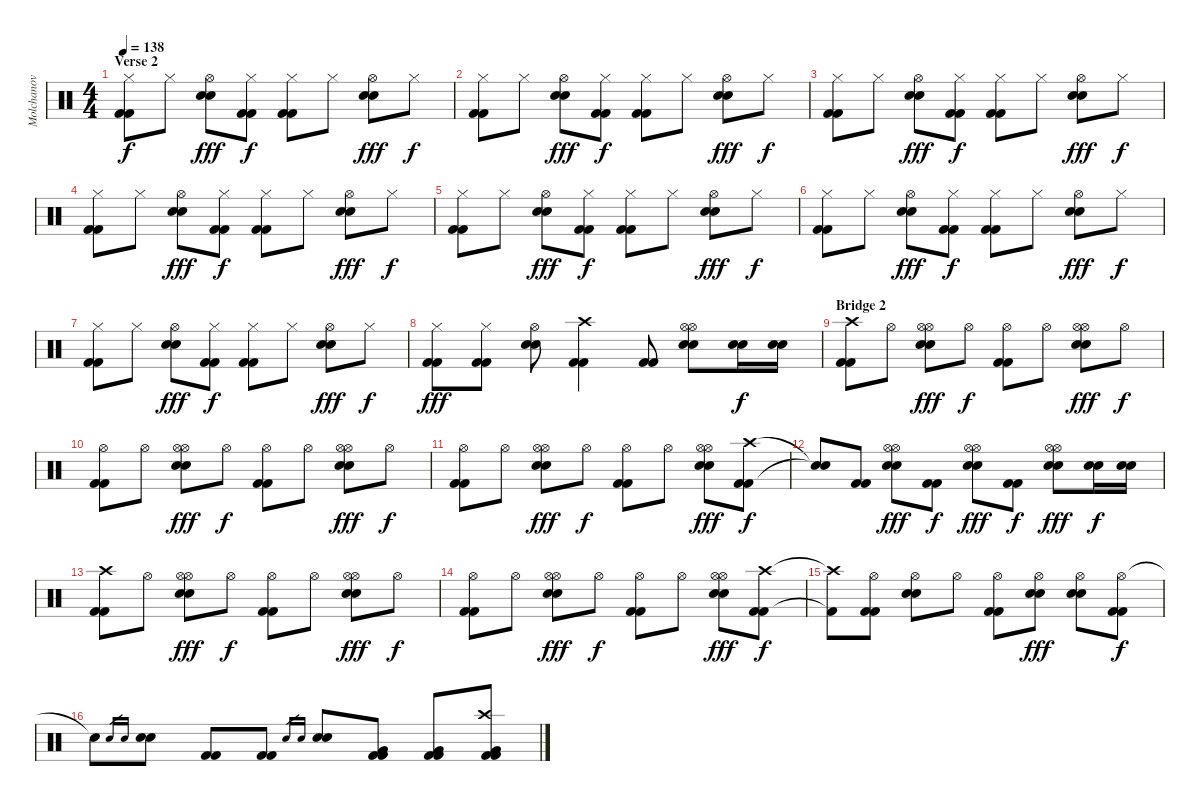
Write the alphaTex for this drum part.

\track ("Molchanov" "Molchanov") {instrument percussion}
\staff {score}
\articulation defaults
\ts (4 4)
\section ("" "Verse 2")
\tempo 138
\clef neutral
\ks c
("Hi-Hat (closed)" "Kick (hit) 2" "Kick (hit) 2").8{dy f} "Hi-Hat (closed)".8 ("Hi-Hat (open)" "Electric Snare (hit)" "Electric Snare (hit)").8{dy fff} ("Hi-Hat (closed)" "Kick (hit) 2" "Kick (hit) 2").8{dy f} ("Hi-Hat (closed)" "Kick (hit) 2" "Kick (hit) 2").8 "Hi-Hat (closed)".8 ("Hi-Hat (open)" "Electric Snare (hit)" "Electric Snare (hit)").8{dy fff} "Hi-Hat (closed)".8{dy f} |
("Hi-Hat (closed)" "Kick (hit) 2" "Kick (hit) 2").8 "Hi-Hat (closed)".8 ("Hi-Hat (open)" "Electric Snare (hit)" "Electric Snare (hit)").8{dy fff} ("Hi-Hat (closed)" "Kick (hit) 2" "Kick (hit) 2").8{dy f} ("Hi-Hat (closed)" "Kick (hit) 2" "Kick (hit) 2").8 "Hi-Hat (closed)".8 ("Hi-Hat (open)" "Electric Snare (hit)" "Electric Snare (hit)").8{dy fff} "Hi-Hat (closed)".8{dy f} |
("Hi-Hat (closed)" "Kick (hit) 2" "Kick (hit) 2").8 "Hi-Hat (closed)".8 ("Hi-Hat (open)" "Electric Snare (hit)" "Electric Snare (hit)").8{dy fff} ("Hi-Hat (closed)" "Kick (hit) 2" "Kick (hit) 2").8{dy f} ("Hi-Hat (closed)" "Kick (hit) 2" "Kick (hit) 2").8 "Hi-Hat (closed)".8 ("Hi-Hat (open)" "Electric Snare (hit)" "Electric Snare (hit)").8{dy fff} "Hi-Hat (closed)".8{dy f} |
("Hi-Hat (closed)" "Kick (hit) 2" "Kick (hit) 2").8 "Hi-Hat (closed)".8 ("Hi-Hat (open)" "Electric Snare (hit)" "Electric Snare (hit)").8{dy fff} ("Hi-Hat (closed)" "Kick (hit) 2" "Kick (hit) 2").8{dy f} ("Hi-Hat (closed)" "Kick (hit) 2" "Kick (hit) 2").8 "Hi-Hat (closed)".8 ("Hi-Hat (open)" "Electric Snare (hit)" "Electric Snare (hit)").8{dy fff} "Hi-Hat (closed)".8{dy f} |
("Hi-Hat (closed)" "Kick (hit) 2" "Kick (hit) 2").8 "Hi-Hat (closed)".8 ("Hi-Hat (open)" "Electric Snare (hit)" "Electric Snare (hit)").8{dy fff} ("Hi-Hat (closed)" "Kick (hit) 2" "Kick (hit) 2").8{dy f} ("Hi-Hat (closed)" "Kick (hit) 2" "Kick (hit) 2").8 "Hi-Hat (closed)".8 ("Hi-Hat (open)" "Electric Snare (hit)" "Electric Snare (hit)").8{dy fff} "Hi-Hat (closed)".8{dy f} |
("Hi-Hat (closed)" "Kick (hit) 2" "Kick (hit) 2").8 "Hi-Hat (closed)".8 ("Hi-Hat (open)" "Electric Snare (hit)" "Electric Snare (hit)").8{dy fff} ("Hi-Hat (closed)" "Kick (hit) 2" "Kick (hit) 2").8{dy f} ("Hi-Hat (closed)" "Kick (hit) 2" "Kick (hit) 2").8 "Hi-Hat (closed)".8 ("Hi-Hat (open)" "Electric Snare (hit)" "Electric Snare (hit)").8{dy fff} "Hi-Hat (closed)".8{dy f} |
("Hi-Hat (closed)" "Kick (hit) 2" "Kick (hit) 2").8 "Hi-Hat (closed)".8 ("Hi-Hat (open)" "Electric Snare (hit)" "Electric Snare (hit)").8{dy fff} ("Hi-Hat (closed)" "Kick (hit) 2" "Kick (hit) 2").8{dy f} ("Hi-Hat (closed)" "Kick (hit) 2" "Kick (hit) 2").8 "Hi-Hat (closed)".8 ("Hi-Hat (open)" "Electric Snare (hit)" "Electric Snare (hit)").8{dy fff} "Hi-Hat (closed)".8{dy f} |
("Hi-Hat (closed)" "Kick (hit) 2" "Kick (hit) 2").8{dy fff} ("Hi-Hat (closed)" "Kick (hit) 2" "Kick (hit) 2").8 ("Hi-Hat (open)" "Electric Snare (hit)" "Electric Snare (hit)").8 ("Crash high (hit)" "Kick (hit) 2" "Kick (hit) 2").4 ("Kick (hit) 2" "Kick (hit) 2").8 ("Hi-Hat (open)" "Hi-Hat (open)" "Electric Snare (hit)" "Electric Snare (hit)").8 ("Electric Snare (hit)" "Electric Snare (hit)").16{dy f} ("Electric Snare (hit)" "Electric Snare (hit)").16 |
\section ("" "Bridge 2")
("Crash high (hit)" "Kick (hit) 2" "Kick (hit) 2").8 "Hi-Hat (open)".8 ("Hi-Hat (open)" "Hi-Hat (open)" "Electric Snare (hit)" "Electric Snare (hit)").8{dy fff} "Hi-Hat (open)".8{dy f} ("Hi-Hat (open)" "Kick (hit) 2" "Kick (hit) 2").8 "Hi-Hat (open)".8 ("Hi-Hat (open)" "Hi-Hat (open)" "Electric Snare (hit)" "Electric Snare (hit)").8{dy fff} "Hi-Hat (open)".8{dy f} |
("Hi-Hat (open)" "Kick (hit) 2" "Kick (hit) 2").8 "Hi-Hat (open)".8 ("Hi-Hat (open)" "Hi-Hat (open)" "Electric Snare (hit)" "Electric Snare (hit)").8{dy fff} "Hi-Hat (open)".8{dy f} ("Hi-Hat (open)" "Kick (hit) 2" "Kick (hit) 2").8 "Hi-Hat (open)".8 ("Hi-Hat (open)" "Hi-Hat (open)" "Electric Snare (hit)" "Electric Snare (hit)").8{dy fff} "Hi-Hat (open)".8{dy f} |
("Hi-Hat (open)" "Kick (hit) 2" "Kick (hit) 2").8 "Hi-Hat (open)".8 ("Hi-Hat (open)" "Hi-Hat (open)" "Electric Snare (hit)" "Electric Snare (hit)").8{dy fff} "Hi-Hat (open)".8{dy f} ("Hi-Hat (open)" "Kick (hit) 2" "Kick (hit) 2").8 "Hi-Hat (open)".8 ("Hi-Hat (open)" "Hi-Hat (open)" "Electric Snare (hit)" "Electric Snare (hit)").8{dy fff} ("Crash high (hit)" "Kick (hit) 2" "Kick (hit) 2").8{dy f} |
("Snare (hit)"{t} "Snare (hit)"{t}).8 ("Kick (hit) 2" "Kick (hit) 2").8 ("Hi-Hat (open)" "Hi-Hat (open)" "Electric Snare (hit)" "Electric Snare (hit)").8{dy fff} ("Kick (hit) 2" "Kick (hit) 2").8{dy f} ("Hi-Hat (open)" "Hi-Hat (open)" "Electric Snare (hit)" "Electric Snare (hit)").8{dy fff} ("Kick (hit) 2" "Kick (hit) 2").8{dy f} ("Hi-Hat (open)" "Hi-Hat (open)" "Electric Snare (hit)" "Electric Snare (hit)").8{dy fff} ("Electric Snare (hit)" "Electric Snare (hit)").16{dy f} ("Electric Snare (hit)" "Electric Snare (hit)").16 |
("Crash high (hit)" "Kick (hit) 2" "Kick (hit) 2").8 "Hi-Hat (open)".8 ("Hi-Hat (open)" "Hi-Hat (open)" "Electric Snare (hit)" "Electric Snare (hit)").8{dy fff} "Hi-Hat (open)".8{dy f} ("Hi-Hat (open)" "Kick (hit) 2" "Kick (hit) 2").8 "Hi-Hat (open)".8 ("Hi-Hat (open)" "Hi-Hat (open)" "Electric Snare (hit)" "Electric Snare (hit)").8{dy fff} "Hi-Hat (open)".8{dy f} |
("Hi-Hat (open)" "Kick (hit) 2" "Kick (hit) 2").8 "Hi-Hat (open)".8 ("Hi-Hat (open)" "Hi-Hat (open)" "Electric Snare (hit)" "Electric Snare (hit)").8{dy fff} "Hi-Hat (open)".8{dy f} ("Hi-Hat (open)" "Kick (hit) 2" "Kick (hit) 2").8 "Hi-Hat (open)".8 ("Hi-Hat (open)" "Hi-Hat (open)" "Electric Snare (hit)" "Electric Snare (hit)").8{dy fff} ("Crash high (hit)" "Kick (hit) 2" "Kick (hit) 2").8{dy f} |
("Crash high (hit)"{t} "Kick (hit) 2"{t}).8 ("Hi-Hat (open)" "Kick (hit) 2" "Kick (hit) 2").8 ("Hi-Hat (open)" "Electric Snare (hit)" "Electric Snare (hit)").8 "Hi-Hat (open)".8 ("Hi-Hat (open)" "Kick (hit) 2" "Kick (hit) 2").8 ("Hi-Hat (open)" "Electric Snare (hit)" "Electric Snare (hit)").8{dy fff} ("Hi-Hat (open)" "Electric Snare (hit)" "Electric Snare (hit)").8 ("Hi-Hat (open)" "Kick (hit) 2" "Kick (hit) 2").8{dy f} |
"Snare (hit)"{t}.8 "Electric Snare (hit)".16{gr} "Electric Snare (hit)".16{gr} ("Electric Snare (hit)" "Electric Snare (hit)").8 ("Kick (hit) 2" "Kick (hit) 2").8 ("Kick (hit) 2" "Kick (hit) 2").8 "Electric Snare (hit)".16{gr} "Electric Snare (hit)".16{gr} ("Electric Snare (hit)" "Electric Snare (hit)").8 ("Very Low Tom (hit)" "Kick (hit) 2" "Kick (hit) 2").8 ("Very Low Tom (hit)" "Kick (hit) 2" "Kick (hit) 2").8 ("Crash high (hit)" "Very Low Tom (hit)" "Kick (hit) 2" "Kick (hit) 2").8
